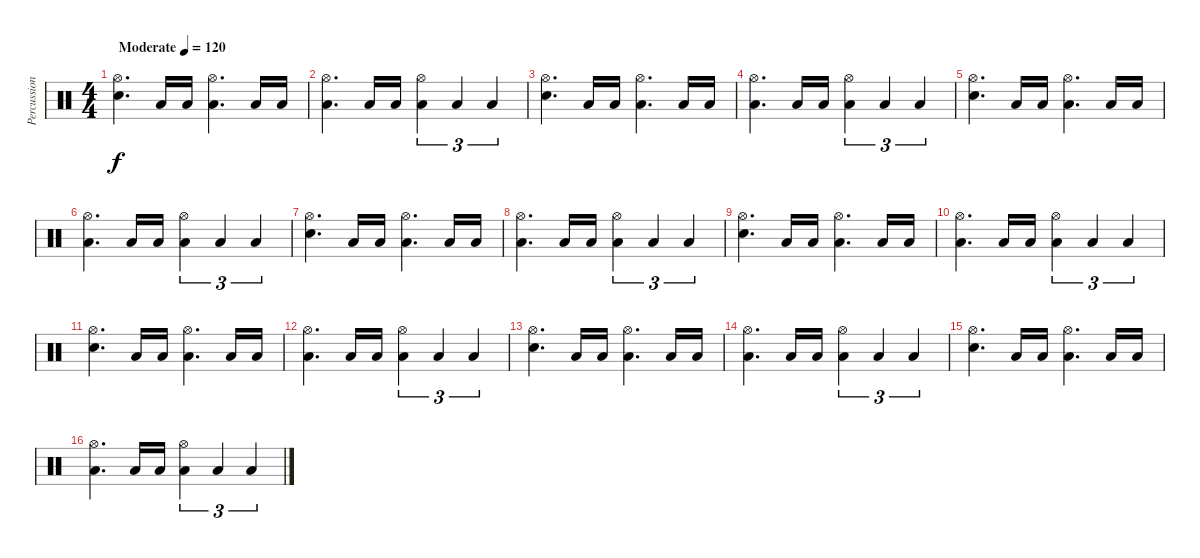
\track ("Percussions" "Percussion") {instrument percussion}
\staff {score}
\articulation defaults
\ts (4 4)
\tempo (120 "Moderate")
\clef neutral
\ks c
("Hi-Hat (open)" "Snare (hit) 2").4{d dy f} "Low Tom (hit)".16 "Low Tom (hit)".16 ("Hi-Hat (open)" "Low Tom (hit)").4{d} "Low Tom (hit)".16 "Low Tom (hit)".16 |
("Hi-Hat (open)" "Low Tom (hit)").4{d} "Low Tom (hit)".16 "Low Tom (hit)".16 ("Hi-Hat (open)" "Low Tom (hit)").4{tu (3 2)} "Low Tom (hit)".4{tu (3 2)} "Low Tom (hit)".4{tu (3 2)} |
("Hi-Hat (open)" "Snare (hit) 2").4{d} "Low Tom (hit)".16 "Low Tom (hit)".16 ("Hi-Hat (open)" "Low Tom (hit)").4{d} "Low Tom (hit)".16 "Low Tom (hit)".16 |
("Hi-Hat (open)" "Low Tom (hit)").4{d} "Low Tom (hit)".16 "Low Tom (hit)".16 ("Hi-Hat (open)" "Low Tom (hit)").4{tu (3 2)} "Low Tom (hit)".4{tu (3 2)} "Low Tom (hit)".4{tu (3 2)} |
("Hi-Hat (open)" "Snare (hit) 2").4{d} "Low Tom (hit)".16 "Low Tom (hit)".16 ("Hi-Hat (open)" "Low Tom (hit)").4{d} "Low Tom (hit)".16 "Low Tom (hit)".16 |
("Hi-Hat (open)" "Low Tom (hit)").4{d} "Low Tom (hit)".16 "Low Tom (hit)".16 ("Hi-Hat (open)" "Low Tom (hit)").4{tu (3 2)} "Low Tom (hit)".4{tu (3 2)} "Low Tom (hit)".4{tu (3 2)} |
("Hi-Hat (open)" "Snare (hit) 2").4{d} "Low Tom (hit)".16 "Low Tom (hit)".16 ("Hi-Hat (open)" "Low Tom (hit)").4{d} "Low Tom (hit)".16 "Low Tom (hit)".16 |
("Hi-Hat (open)" "Low Tom (hit)").4{d} "Low Tom (hit)".16 "Low Tom (hit)".16 ("Hi-Hat (open)" "Low Tom (hit)").4{tu (3 2)} "Low Tom (hit)".4{tu (3 2)} "Low Tom (hit)".4{tu (3 2)} |
("Hi-Hat (open)" "Snare (hit) 2").4{d} "Low Tom (hit)".16 "Low Tom (hit)".16 ("Hi-Hat (open)" "Low Tom (hit)").4{d} "Low Tom (hit)".16 "Low Tom (hit)".16 |
("Hi-Hat (open)" "Low Tom (hit)").4{d} "Low Tom (hit)".16 "Low Tom (hit)".16 ("Hi-Hat (open)" "Low Tom (hit)").4{tu (3 2)} "Low Tom (hit)".4{tu (3 2)} "Low Tom (hit)".4{tu (3 2)} |
("Hi-Hat (open)" "Snare (hit) 2").4{d} "Low Tom (hit)".16 "Low Tom (hit)".16 ("Hi-Hat (open)" "Low Tom (hit)").4{d} "Low Tom (hit)".16 "Low Tom (hit)".16 |
("Hi-Hat (open)" "Low Tom (hit)").4{d} "Low Tom (hit)".16 "Low Tom (hit)".16 ("Hi-Hat (open)" "Low Tom (hit)").4{tu (3 2)} "Low Tom (hit)".4{tu (3 2)} "Low Tom (hit)".4{tu (3 2)} |
("Hi-Hat (open)" "Snare (hit) 2").4{d} "Low Tom (hit)".16 "Low Tom (hit)".16 ("Hi-Hat (open)" "Low Tom (hit)").4{d} "Low Tom (hit)".16 "Low Tom (hit)".16 |
("Hi-Hat (open)" "Low Tom (hit)").4{d} "Low Tom (hit)".16 "Low Tom (hit)".16 ("Hi-Hat (open)" "Low Tom (hit)").4{tu (3 2)} "Low Tom (hit)".4{tu (3 2)} "Low Tom (hit)".4{tu (3 2)} |
("Hi-Hat (open)" "Snare (hit) 2").4{d} "Low Tom (hit)".16 "Low Tom (hit)".16 ("Hi-Hat (open)" "Low Tom (hit)").4{d} "Low Tom (hit)".16 "Low Tom (hit)".16 |
("Hi-Hat (open)" "Low Tom (hit)").4{d} "Low Tom (hit)".16 "Low Tom (hit)".16 ("Hi-Hat (open)" "Low Tom (hit)").4{tu (3 2)} "Low Tom (hit)".4{tu (3 2)} "Low Tom (hit)".4{tu (3 2)}
